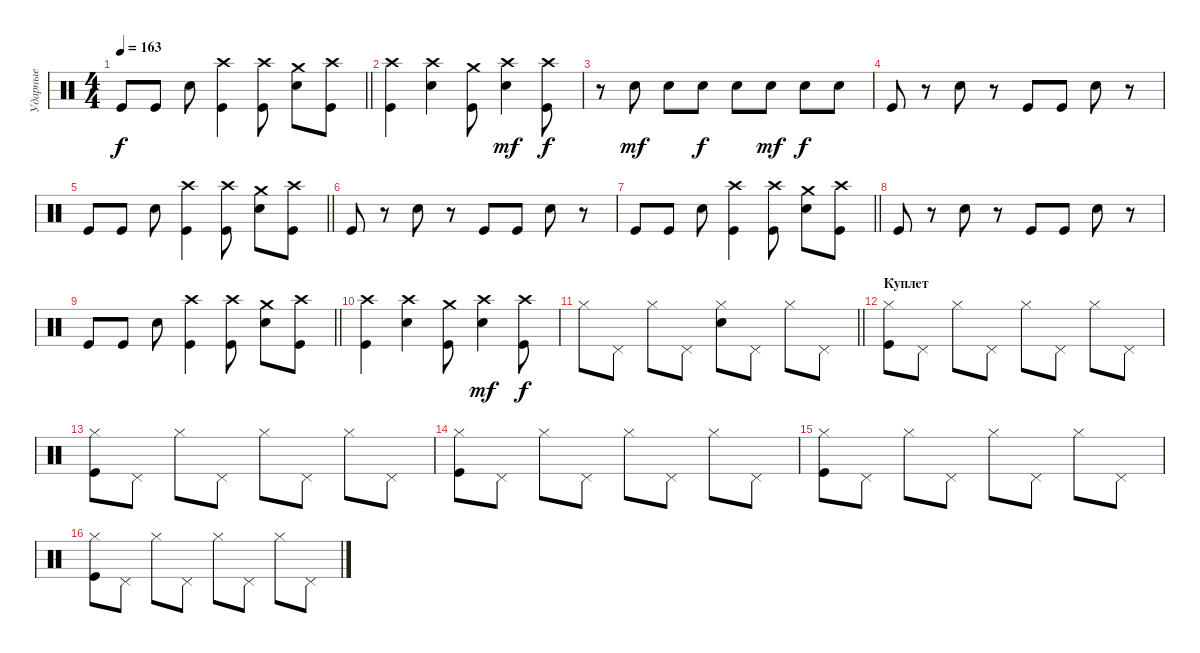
\track ("Ударные" "Ударные") {instrument percussion}
\staff
\articulation defaults
\ts (4 4)
\tempo 163
\clef neutral
\barLineRight lightlight
\ks c "Kick (hit)".8{dy f} "Kick (hit)".8 "Snare (hit) 2".8
("Crash high (hit)" "Kick (hit)").4 ("Crash high (hit)" "Kick (hit)").8 ("Crash medium (hit)" "Snare (hit) 2").8 ("Crash high (hit)" "Kick (hit)").8 |
("Crash high (hit)" "Kick (hit)").4 ("Crash high (hit)" "Snare (hit) 2").4 ("Crash medium (hit)" "Kick (hit)").8 ("Crash high (hit)" "Snare (hit) 2").4{dy mf} ("Crash high (hit)" "Kick (hit)").8{dy f} |
r.8 "Snare (hit) 2".8{dy mf} "Snare (hit) 2".8 "Snare (hit) 2".8{dy f} "Snare (hit) 2".8 "Snare (hit) 2".8{dy mf} "Snare (hit) 2".8{dy f} "Snare (hit) 2".8 |
"Kick (hit)".8 r.8 "Snare (hit) 2".8 r.8 "Kick (hit)".8 "Kick (hit)".8 "Snare (hit) 2".8 r.8 |
\barLineRight lightlight "Kick (hit)".8 "Kick (hit)".8 "Snare (hit) 2".8
("Crash high (hit)" "Kick (hit)").4 ("Crash high (hit)" "Kick (hit)").8 ("Crash medium (hit)" "Snare (hit) 2").8 ("Crash high (hit)" "Kick (hit)").8 |
"Kick (hit)".8 r.8 "Snare (hit) 2".8 r.8 "Kick (hit)".8 "Kick (hit)".8 "Snare (hit) 2".8 r.8 |
\barLineRight lightlight "Kick (hit)".8 "Kick (hit)".8 "Snare (hit) 2".8
("Crash high (hit)" "Kick (hit)").4 ("Crash high (hit)" "Kick (hit)").8 ("Crash medium (hit)" "Snare (hit) 2").8 ("Crash high (hit)" "Kick (hit)").8 |
"Kick (hit)".8 r.8 "Snare (hit) 2".8 r.8 "Kick (hit)".8 "Kick (hit)".8 "Snare (hit) 2".8 r.8 |
\barLineRight lightlight "Kick (hit)".8 "Kick (hit)".8 "Snare (hit) 2".8
("Crash high (hit)" "Kick (hit)").4 ("Crash high (hit)" "Kick (hit)").8 ("Crash medium (hit)" "Snare (hit) 2").8 ("Crash high (hit)" "Kick (hit)").8 |
("Crash high (hit)" "Kick (hit)").4 ("Crash high (hit)" "Snare (hit) 2").4 ("Crash medium (hit)" "Kick (hit)").8 ("Crash high (hit)" "Snare (hit) 2").4{dy mf} ("Crash high (hit)" "Kick (hit)").8{dy f} |
\barLineRight lightlight "Hi-Hat (closed)".8 "Pedal Hi-Hat (hit)".8 "Hi-Hat (closed)".8 "Pedal Hi-Hat (hit)".8
("Hi-Hat (closed)" "Snare (hit) 2").8 "Pedal Hi-Hat (hit)".8 "Hi-Hat (closed)".8 "Pedal Hi-Hat (hit)".8 |
\section ("" "Куплет")
("Hi-Hat (closed)" "Kick (hit)").8 "Pedal Hi-Hat (hit)".8 "Hi-Hat (closed)".8 "Pedal Hi-Hat (hit)".8 "Hi-Hat (closed)".8 "Pedal Hi-Hat (hit)".8 "Hi-Hat (closed)".8 "Pedal Hi-Hat (hit)".8 |
("Hi-Hat (closed)" "Kick (hit)").8 "Pedal Hi-Hat (hit)".8 "Hi-Hat (closed)".8 "Pedal Hi-Hat (hit)".8 "Hi-Hat (closed)".8 "Pedal Hi-Hat (hit)".8 "Hi-Hat (closed)".8 "Pedal Hi-Hat (hit)".8 |
("Hi-Hat (closed)" "Kick (hit)").8 "Pedal Hi-Hat (hit)".8 "Hi-Hat (closed)".8 "Pedal Hi-Hat (hit)".8 "Hi-Hat (closed)".8 "Pedal Hi-Hat (hit)".8 "Hi-Hat (closed)".8 "Pedal Hi-Hat (hit)".8 |
("Hi-Hat (closed)" "Kick (hit)").8 "Pedal Hi-Hat (hit)".8 "Hi-Hat (closed)".8 "Pedal Hi-Hat (hit)".8 "Hi-Hat (closed)".8 "Pedal Hi-Hat (hit)".8 "Hi-Hat (closed)".8 "Pedal Hi-Hat (hit)".8 |
("Hi-Hat (closed)" "Kick (hit)").8 "Pedal Hi-Hat (hit)".8 "Hi-Hat (closed)".8 "Pedal Hi-Hat (hit)".8 "Hi-Hat (closed)".8 "Pedal Hi-Hat (hit)".8 "Hi-Hat (closed)".8 "Pedal Hi-Hat (hit)".8
